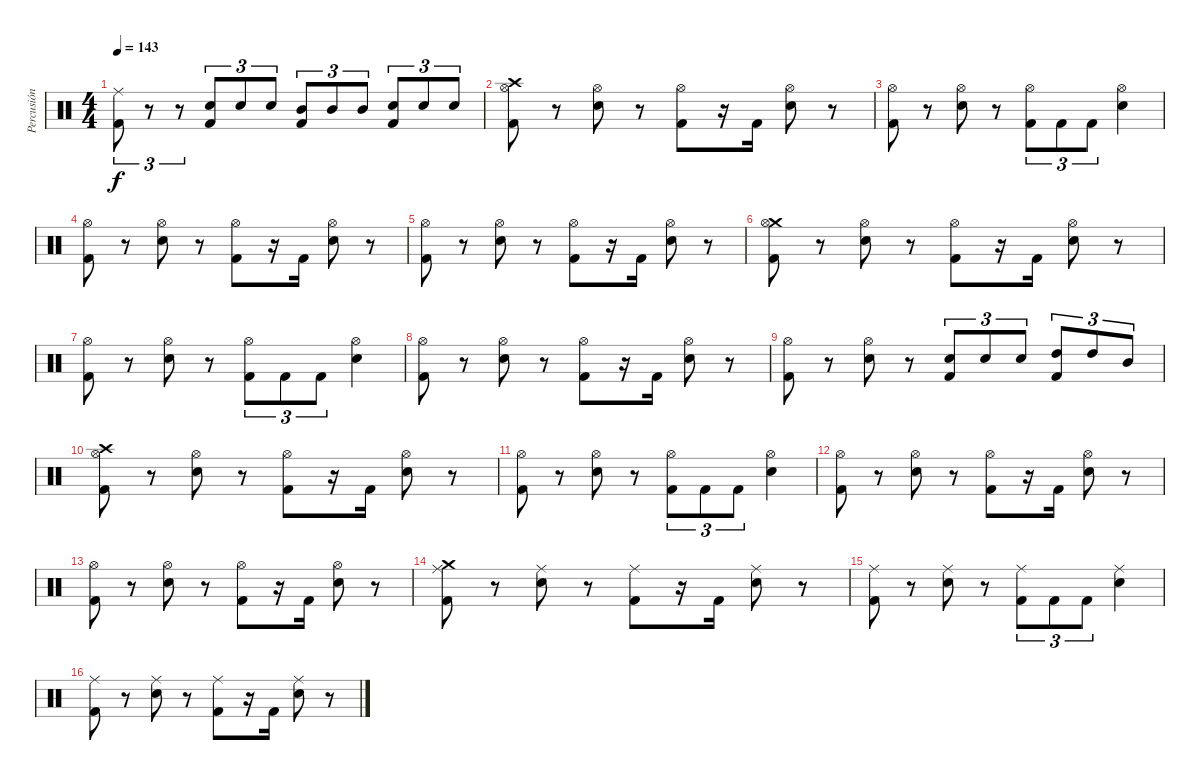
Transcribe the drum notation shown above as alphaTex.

\track ("Percusión" "Percusión") {instrument percussion}
\staff {score}
\articulation defaults
\ts (4 4)
\tempo 143
\clef neutral
\ks c
("Ride (middle)" "Kick (hit) 2").8{tu (3 2) dy f} r.8{tu (3 2)} r.8{tu (3 2)} ("Electric Snare (hit)" "Kick (hit) 2").8{tu (3 2)} "Electric Snare (hit)".8{tu (3 2)} "Electric Snare (hit)".8{tu (3 2)} ("Mid Tom (hit)" "Kick (hit) 2").8{tu (3 2)} "Mid Tom (hit)".8{tu (3 2)} "Mid Tom (hit)".8{tu (3 2)} ("Electric Snare (hit)" "Kick (hit) 2").8{tu (3 2)} "Electric Snare (hit)".8{tu (3 2)} "Electric Snare (hit)".8{tu (3 2)} |
("Crash high (hit)" "Hi-Hat (open)" "Kick (hit) 2").8 r.8 ("Hi-Hat (open)" "Electric Snare (hit)").8 r.8 ("Hi-Hat (open)" "Kick (hit) 2").8 r.16 "Kick (hit) 2".16 ("Electric Snare (hit)" "Hi-Hat (open)").8 r.8 |
("Hi-Hat (open)" "Kick (hit) 2").8 r.8 ("Hi-Hat (open)" "Electric Snare (hit)").8 r.8 ("Hi-Hat (open)" "Kick (hit) 2").8{tu (3 2)} "Kick (hit) 2".8{tu (3 2)} "Kick (hit) 2".8{tu (3 2)} ("Hi-Hat (open)" "Electric Snare (hit)").4 |
("Hi-Hat (open)" "Kick (hit) 2").8 r.8 ("Hi-Hat (open)" "Electric Snare (hit)").8 r.8 ("Hi-Hat (open)" "Kick (hit) 2").8 r.16 "Kick (hit) 2".16 ("Electric Snare (hit)" "Hi-Hat (open)").8 r.8 |
("Hi-Hat (open)" "Kick (hit) 2").8 r.8 ("Hi-Hat (open)" "Electric Snare (hit)").8 r.8 ("Hi-Hat (open)" "Kick (hit) 2").8 r.16 "Kick (hit) 2".16 ("Electric Snare (hit)" "Hi-Hat (open)").8 r.8 |
("Crash medium (hit)" "Hi-Hat (open)" "Kick (hit) 2").8 r.8 ("Hi-Hat (open)" "Electric Snare (hit)").8 r.8 ("Hi-Hat (open)" "Kick (hit) 2").8 r.16 "Kick (hit) 2".16 ("Electric Snare (hit)" "Hi-Hat (open)").8 r.8 |
("Hi-Hat (open)" "Kick (hit) 2").8 r.8 ("Hi-Hat (open)" "Electric Snare (hit)").8 r.8 ("Hi-Hat (open)" "Kick (hit) 2").8{tu (3 2)} "Kick (hit) 2".8{tu (3 2)} "Kick (hit) 2".8{tu (3 2)} ("Hi-Hat (open)" "Electric Snare (hit)").4 |
("Hi-Hat (open)" "Kick (hit) 2").8 r.8 ("Hi-Hat (open)" "Electric Snare (hit)").8 r.8 ("Hi-Hat (open)" "Kick (hit) 2").8 r.16 "Kick (hit) 2".16 ("Electric Snare (hit)" "Hi-Hat (open)").8 r.8 |
("Hi-Hat (open)" "Kick (hit) 2").8 r.8 ("Hi-Hat (open)" "Electric Snare (hit)").8 r.8 ("Electric Snare (hit)" "Kick (hit) 2").8{tu (3 2)} "Electric Snare (hit)".8{tu (3 2)} "Electric Snare (hit)".8{tu (3 2)} ("High Tom (hit)" "Kick (hit) 2").8{tu (3 2)} "High Tom (hit)".8{tu (3 2)} "Mid Tom (hit)".8{tu (3 2)} |
("Crash high (hit)" "Hi-Hat (open)" "Kick (hit) 2").8 r.8 ("Hi-Hat (open)" "Electric Snare (hit)").8 r.8 ("Hi-Hat (open)" "Kick (hit) 2").8 r.16 "Kick (hit) 2".16 ("Electric Snare (hit)" "Hi-Hat (open)").8 r.8 |
("Hi-Hat (open)" "Kick (hit) 2").8 r.8 ("Hi-Hat (open)" "Electric Snare (hit)").8 r.8 ("Hi-Hat (open)" "Kick (hit) 2").8{tu (3 2)} "Kick (hit) 2".8{tu (3 2)} "Kick (hit) 2".8{tu (3 2)} ("Hi-Hat (open)" "Electric Snare (hit)").4 |
("Hi-Hat (open)" "Kick (hit) 2").8 r.8 ("Hi-Hat (open)" "Electric Snare (hit)").8 r.8 ("Hi-Hat (open)" "Kick (hit) 2").8 r.16 "Kick (hit) 2".16 ("Electric Snare (hit)" "Hi-Hat (open)").8 r.8 |
("Hi-Hat (open)" "Kick (hit) 2").8 r.8 ("Hi-Hat (open)" "Electric Snare (hit)").8 r.8 ("Hi-Hat (open)" "Kick (hit) 2").8 r.16 "Kick (hit) 2".16 ("Electric Snare (hit)" "Hi-Hat (open)").8 r.8 |
("Crash medium (hit)" "Ride (middle)" "Kick (hit) 2").8 r.8 ("Ride (middle)" "Electric Snare (hit)").8 r.8 ("Ride (middle)" "Kick (hit) 2").8 r.16 "Kick (hit) 2".16 ("Electric Snare (hit)" "Ride (middle)").8 r.8 |
("Ride (middle)" "Kick (hit) 2").8 r.8 ("Ride (middle)" "Electric Snare (hit)").8 r.8 ("Ride (middle)" "Kick (hit) 2").8{tu (3 2)} "Kick (hit) 2".8{tu (3 2)} "Kick (hit) 2".8{tu (3 2)} ("Ride (middle)" "Electric Snare (hit)").4 |
("Ride (middle)" "Kick (hit) 2").8 r.8 ("Ride (middle)" "Electric Snare (hit)").8 r.8 ("Ride (middle)" "Kick (hit) 2").8 r.16 "Kick (hit) 2".16 ("Electric Snare (hit)" "Ride (middle)").8 r.8
